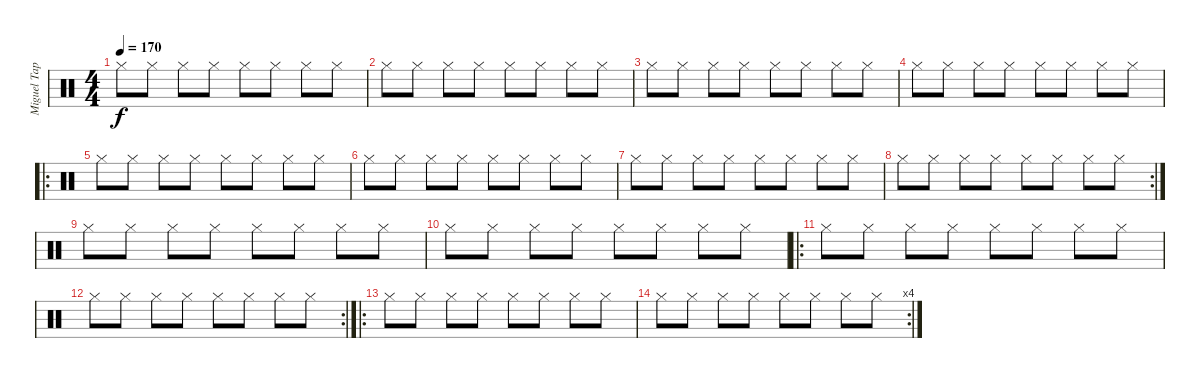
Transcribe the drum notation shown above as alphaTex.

\track ("Miguel Tapia" "Miguel Tap") {instrument percussion}
\staff {score}
\articulation defaults
\ts (4 4)
\tempo 170
\clef neutral
\ks c "Hi-Hat (closed)".8{dy f} "Hi-Hat (closed)".8 "Hi-Hat (closed)".8 "Hi-Hat (closed)".8 "Hi-Hat (closed)".8 "Hi-Hat (closed)".8 "Hi-Hat (closed)".8 "Hi-Hat (closed)".8
|
"Hi-Hat (closed)".8 "Hi-Hat (closed)".8 "Hi-Hat (closed)".8 "Hi-Hat (closed)".8 "Hi-Hat (closed)".8 "Hi-Hat (closed)".8 "Hi-Hat (closed)".8 "Hi-Hat (closed)".8 |
"Hi-Hat (closed)".8 "Hi-Hat (closed)".8 "Hi-Hat (closed)".8 "Hi-Hat (closed)".8 "Hi-Hat (closed)".8 "Hi-Hat (closed)".8 "Hi-Hat (closed)".8 "Hi-Hat (closed)".8 |
"Hi-Hat (closed)".8 "Hi-Hat (closed)".8 "Hi-Hat (closed)".8 "Hi-Hat (closed)".8 "Hi-Hat (closed)".8 "Hi-Hat (closed)".8 "Hi-Hat (closed)".8 "Hi-Hat (closed)".8 |
\ro "Hi-Hat (closed)".8 "Hi-Hat (closed)".8 "Hi-Hat (closed)".8 "Hi-Hat (closed)".8 "Hi-Hat (closed)".8 "Hi-Hat (closed)".8 "Hi-Hat (closed)".8 "Hi-Hat (closed)".8
|
"Hi-Hat (closed)".8 "Hi-Hat (closed)".8 "Hi-Hat (closed)".8 "Hi-Hat (closed)".8 "Hi-Hat (closed)".8 "Hi-Hat (closed)".8 "Hi-Hat (closed)".8 "Hi-Hat (closed)".8 |
"Hi-Hat (closed)".8 "Hi-Hat (closed)".8 "Hi-Hat (closed)".8 "Hi-Hat (closed)".8 "Hi-Hat (closed)".8 "Hi-Hat (closed)".8 "Hi-Hat (closed)".8 "Hi-Hat (closed)".8 |
\rc 2 "Hi-Hat (closed)".8 "Hi-Hat (closed)".8 "Hi-Hat (closed)".8 "Hi-Hat (closed)".8 "Hi-Hat (closed)".8 "Hi-Hat (closed)".8 "Hi-Hat (closed)".8 "Hi-Hat (closed)".8
|
"Hi-Hat (closed)".8 "Hi-Hat (closed)".8 "Hi-Hat (closed)".8 "Hi-Hat (closed)".8 "Hi-Hat (closed)".8 "Hi-Hat (closed)".8 "Hi-Hat (closed)".8 "Hi-Hat (closed)".8 |
"Hi-Hat (closed)".8 "Hi-Hat (closed)".8 "Hi-Hat (closed)".8 "Hi-Hat (closed)".8 "Hi-Hat (closed)".8 "Hi-Hat (closed)".8 "Hi-Hat (closed)".8 "Hi-Hat (closed)".8 |
\ro "Hi-Hat (closed)".8 "Hi-Hat (closed)".8 "Hi-Hat (closed)".8 "Hi-Hat (closed)".8 "Hi-Hat (closed)".8 "Hi-Hat (closed)".8 "Hi-Hat (closed)".8 "Hi-Hat (closed)".8
|
\rc 2 "Hi-Hat (closed)".8 "Hi-Hat (closed)".8 "Hi-Hat (closed)".8 "Hi-Hat (closed)".8 "Hi-Hat (closed)".8 "Hi-Hat (closed)".8 "Hi-Hat (closed)".8 "Hi-Hat (closed)".8
|
\ro "Hi-Hat (closed)".8 "Hi-Hat (closed)".8 "Hi-Hat (closed)".8 "Hi-Hat (closed)".8 "Hi-Hat (closed)".8 "Hi-Hat (closed)".8 "Hi-Hat (closed)".8 "Hi-Hat (closed)".8
|
\rc 4 "Hi-Hat (closed)".8 "Hi-Hat (closed)".8 "Hi-Hat (closed)".8 "Hi-Hat (closed)".8 "Hi-Hat (closed)".8 "Hi-Hat (closed)".8 "Hi-Hat (closed)".8 "Hi-Hat (closed)".8
